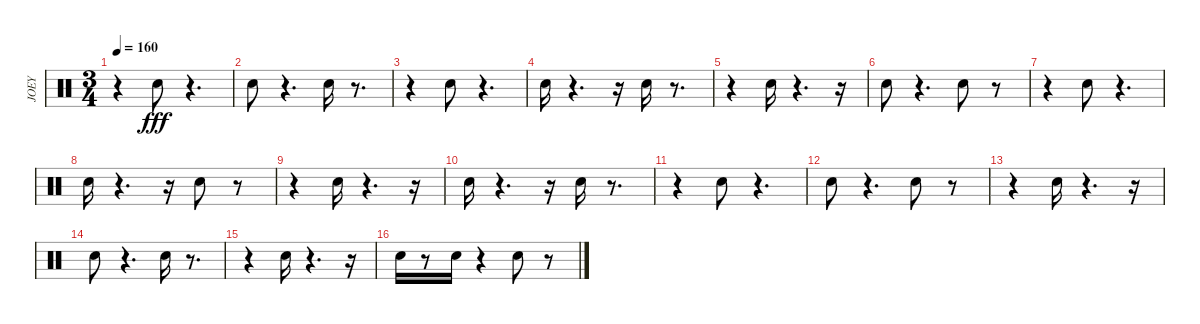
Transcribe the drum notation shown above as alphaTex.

\track ("JOEY" "JOEY") {instrument percussion}
\staff {score}
\articulation defaults
\ts (3 4)
\tempo 160
\clef neutral
\ks c
r.4{dy fff} "Snare (hit) 2".8 r.4{d} |
"Snare (hit) 2".8 r.4{d} "Snare (hit) 2".16 r.8{d} |
r.4 "Snare (hit) 2".8 r.4{d} |
"Snare (hit) 2".16 r.4{d} r.16 "Snare (hit) 2".16 r.8{d} |
r.4 "Snare (hit) 2".16 r.4{d} r.16 |
"Snare (hit) 2".8 r.4{d} "Snare (hit) 2".8 r.8 |
r.4 "Snare (hit) 2".8 r.4{d} |
"Snare (hit) 2".16 r.4{d} r.16 "Snare (hit) 2".8 r.8 |
r.4 "Snare (hit) 2".16 r.4{d} r.16 |
"Snare (hit) 2".16 r.4{d} r.16 "Snare (hit) 2".16 r.8{d} |
r.4 "Snare (hit) 2".8 r.4{d} |
"Snare (hit) 2".8 r.4{d} "Snare (hit) 2".8 r.8 |
r.4 "Snare (hit) 2".16 r.4{d} r.16 |
"Snare (hit) 2".8 r.4{d} "Snare (hit) 2".16 r.8{d} |
r.4 "Snare (hit) 2".16 r.4{d} r.16 |
"Snare (hit) 2".16 r.8 "Snare (hit) 2".16 r.4 "Snare (hit) 2".8 r.8
